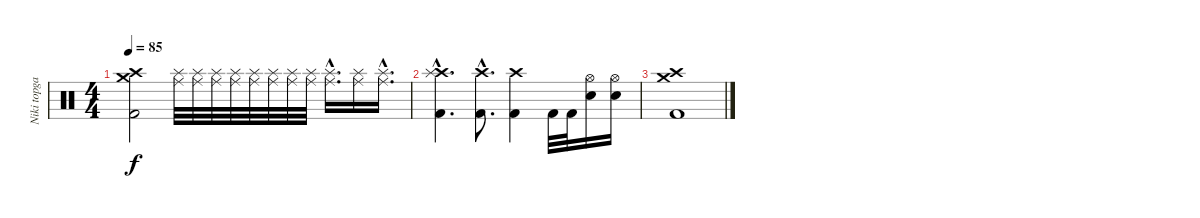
\track ("Niki topgaard" "Niki topga") {instrument percussion}
\staff {score}
\articulation defaults
\ts (4 4)
\tempo 85
\clef neutral
\ks c
("Crash high (hit)" "Crash medium (hit)" "Kick (hit) 2").2{dy f} ("Ride (middle)" "Splash (hit)").32 ("Ride (middle)" "Splash (hit)").32 ("Ride (middle)" "Splash (hit)").32 ("Ride (middle)" "Splash (hit)").32 ("Ride (middle)" "Splash (hit)").32 ("Ride (middle)" "Splash (hit)").32 ("Ride (middle)" "Splash (hit)").32 ("Ride (middle)" "Splash (hit)").32 ("Ride (middle)"{hac} "Splash (hit)"{hac}).16{d} ("Ride (middle)" "Splash (hit)").16 ("Ride (middle)"{hac} "Splash (hit)"{hac}).16{d} |
("Crash high (hit)"{hac} "Splash (hit)"{hac} "Kick (hit) 2"{hac}).4{d} ("Crash high (hit)"{hac} "Kick (hit) 2"{hac}).8{d} ("Crash high (hit)" "Kick (hit) 2").4 "Kick (hit) 2".32 "Kick (hit) 2".32 ("Hi-Hat (open)" "Snare (hit) 2").16 ("Hi-Hat (open)" "Snare (hit) 2").16 |
("Crash medium (hit)" "Crash high (hit)" "Kick (hit) 2").1
